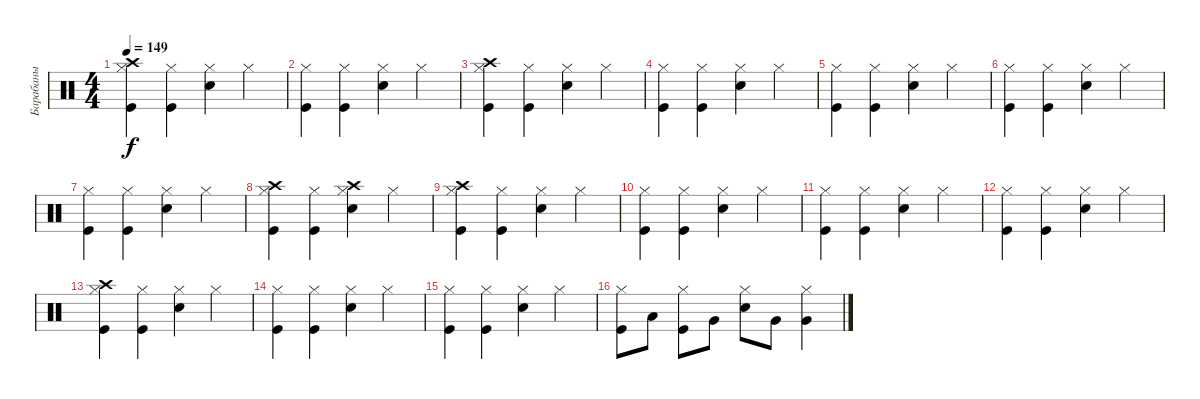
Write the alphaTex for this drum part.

\track ("Барабаны" "Барабаны") {instrument percussion}
\staff {score}
\articulation defaults
\ts (4 4)
\tempo 149
\clef neutral
\ks c
("Kick (hit)" "Hi-Hat (closed)" "Crash high (hit)").4{dy f} ("Kick (hit)" "Hi-Hat (closed)").4 ("Snare (hit) 2" "Hi-Hat (closed)").4 "Hi-Hat (closed)".4 |
("Kick (hit)" "Hi-Hat (closed)").4 ("Kick (hit)" "Hi-Hat (closed)").4 ("Snare (hit) 2" "Hi-Hat (closed)").4 "Hi-Hat (closed)".4 |
("Kick (hit)" "Hi-Hat (closed)" "Crash high (hit)").4 ("Kick (hit)" "Hi-Hat (closed)").4 ("Snare (hit) 2" "Hi-Hat (closed)").4 "Hi-Hat (closed)".4 |
("Kick (hit)" "Hi-Hat (closed)").4 ("Kick (hit)" "Hi-Hat (closed)").4 ("Snare (hit) 2" "Hi-Hat (closed)").4 "Hi-Hat (closed)".4 |
("Kick (hit)" "Hi-Hat (closed)").4 ("Kick (hit)" "Hi-Hat (closed)").4 ("Snare (hit) 2" "Hi-Hat (closed)").4 "Hi-Hat (closed)".4 |
("Kick (hit)" "Hi-Hat (closed)").4 ("Kick (hit)" "Hi-Hat (closed)").4 ("Snare (hit) 2" "Hi-Hat (closed)").4 "Hi-Hat (closed)".4 |
("Kick (hit)" "Hi-Hat (closed)").4 ("Kick (hit)" "Hi-Hat (closed)").4 ("Snare (hit) 2" "Hi-Hat (closed)").4 "Hi-Hat (closed)".4 |
("Kick (hit)" "Hi-Hat (closed)" "Crash high (hit)").4 ("Kick (hit)" "Hi-Hat (closed)").4 ("Snare (hit) 2" "Hi-Hat (closed)" "Crash high (hit)").4 "Hi-Hat (closed)".4 |
("Kick (hit)" "Hi-Hat (closed)" "Crash high (hit)").4 ("Kick (hit)" "Hi-Hat (closed)").4 ("Snare (hit) 2" "Hi-Hat (closed)").4 "Hi-Hat (closed)".4 |
("Kick (hit)" "Hi-Hat (closed)").4 ("Kick (hit)" "Hi-Hat (closed)").4 ("Snare (hit) 2" "Hi-Hat (closed)").4 "Hi-Hat (closed)".4 |
("Kick (hit)" "Hi-Hat (closed)").4 ("Kick (hit)" "Hi-Hat (closed)").4 ("Snare (hit) 2" "Hi-Hat (closed)").4 "Hi-Hat (closed)".4 |
("Kick (hit)" "Hi-Hat (closed)").4 ("Kick (hit)" "Hi-Hat (closed)").4 ("Snare (hit) 2" "Hi-Hat (closed)").4 "Hi-Hat (closed)".4 |
("Kick (hit)" "Hi-Hat (closed)" "Crash high (hit)").4 ("Kick (hit)" "Hi-Hat (closed)").4 ("Snare (hit) 2" "Hi-Hat (closed)").4 "Hi-Hat (closed)".4 |
("Kick (hit)" "Hi-Hat (closed)").4 ("Kick (hit)" "Hi-Hat (closed)").4 ("Snare (hit) 2" "Hi-Hat (closed)").4 "Hi-Hat (closed)".4 |
("Kick (hit)" "Hi-Hat (closed)").4 ("Kick (hit)" "Hi-Hat (closed)").4 ("Snare (hit) 2" "Hi-Hat (closed)").4 "Hi-Hat (closed)".4 |
("Kick (hit)" "Hi-Hat (closed)").8 "Low Tom (hit)".8 ("Kick (hit)" "Hi-Hat (closed)").8 "Very Low Tom (hit)".8 ("Snare (hit) 2" "Hi-Hat (closed)").8 "Very Low Tom (hit)".8 ("Hi-Hat (closed)" "Very Low Tom (hit)").4
